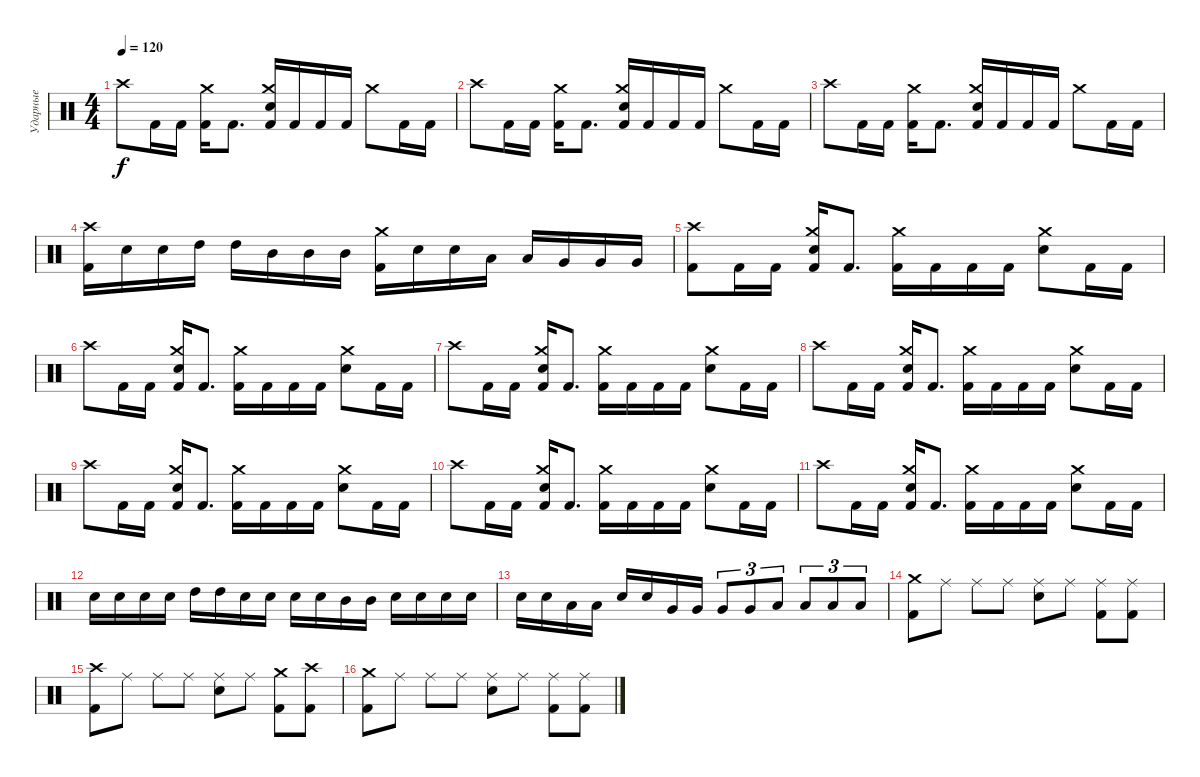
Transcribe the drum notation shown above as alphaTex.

\track ("Ударные" "Ударные") {instrument percussion}
\staff {score}
\articulation defaults
\ts (4 4)
\tempo 120
\clef neutral
\ks c "Crash high (hit)".8{dy f} "Kick (hit) 2".16 "Kick (hit) 2".16
("Crash medium (hit)" "Kick (hit) 2").16 "Kick (hit) 2".8{d} ("Crash medium (hit)" "Electric Snare (hit)" "Kick (hit) 2").16 "Kick (hit) 2".16 "Kick (hit) 2".16 "Kick (hit) 2".16 "Crash medium (hit)".8 "Kick (hit) 2".16 "Kick (hit) 2".16 |
"Crash high (hit)".8 "Kick (hit) 2".16 "Kick (hit) 2".16 ("Crash medium (hit)" "Kick (hit) 2").16 "Kick (hit) 2".8{d} ("Crash medium (hit)" "Electric Snare (hit)" "Kick (hit) 2").16 "Kick (hit) 2".16 "Kick (hit) 2".16 "Kick (hit) 2".16 "Crash medium (hit)".8 "Kick (hit) 2".16 "Kick (hit) 2".16 |
"Crash high (hit)".8 "Kick (hit) 2".16 "Kick (hit) 2".16 ("Crash medium (hit)" "Kick (hit) 2").16 "Kick (hit) 2".8{d} ("Crash medium (hit)" "Electric Snare (hit)" "Kick (hit) 2").16 "Kick (hit) 2".16 "Kick (hit) 2".16 "Kick (hit) 2".16 "Crash medium (hit)".8 "Kick (hit) 2".16 "Kick (hit) 2".16 |
("Crash high (hit)" "Kick (hit) 2").16 "Electric Snare (hit)".16 "Electric Snare (hit)".16 "High Tom (hit)".16 "High Tom (hit)".16 "Mid Tom (hit)".16 "Mid Tom (hit)".16 "Mid Tom (hit)".16 ("Crash medium (hit)" "Kick (hit) 2").16 "Electric Snare (hit)".16 "Electric Snare (hit)".16 "Low Tom (hit)".16 "Low Tom (hit)".16 "Very Low Tom (hit)".16 "Very Low Tom (hit)".16 "Very Low Tom (hit)".16 |
("Crash high (hit)" "Kick (hit) 2").8 "Kick (hit) 2".16 "Kick (hit) 2".16 ("Crash medium (hit)" "Electric Snare (hit)" "Kick (hit) 2").16 "Kick (hit) 2".8{d} ("Crash medium (hit)" "Kick (hit) 2").16 "Kick (hit) 2".16 "Kick (hit) 2".16 "Kick (hit) 2".16 ("Crash medium (hit)" "Electric Snare (hit)").8 "Kick (hit) 2".16 "Kick (hit) 2".16 |
"Crash high (hit)".8 "Kick (hit) 2".16 "Kick (hit) 2".16 ("Crash medium (hit)" "Electric Snare (hit)" "Kick (hit) 2").16 "Kick (hit) 2".8{d} ("Crash medium (hit)" "Kick (hit) 2").16 "Kick (hit) 2".16 "Kick (hit) 2".16 "Kick (hit) 2".16 ("Crash medium (hit)" "Electric Snare (hit)").8 "Kick (hit) 2".16 "Kick (hit) 2".16 |
"Crash high (hit)".8 "Kick (hit) 2".16 "Kick (hit) 2".16 ("Crash medium (hit)" "Electric Snare (hit)" "Kick (hit) 2").16 "Kick (hit) 2".8{d} ("Crash medium (hit)" "Kick (hit) 2").16 "Kick (hit) 2".16 "Kick (hit) 2".16 "Kick (hit) 2".16 ("Crash medium (hit)" "Electric Snare (hit)").8 "Kick (hit) 2".16 "Kick (hit) 2".16 |
"Crash high (hit)".8 "Kick (hit) 2".16 "Kick (hit) 2".16 ("Crash medium (hit)" "Electric Snare (hit)" "Kick (hit) 2").16 "Kick (hit) 2".8{d} ("Crash medium (hit)" "Kick (hit) 2").16 "Kick (hit) 2".16 "Kick (hit) 2".16 "Kick (hit) 2".16 ("Crash medium (hit)" "Electric Snare (hit)").8 "Kick (hit) 2".16 "Kick (hit) 2".16 |
"Crash high (hit)".8 "Kick (hit) 2".16 "Kick (hit) 2".16 ("Crash medium (hit)" "Electric Snare (hit)" "Kick (hit) 2").16 "Kick (hit) 2".8{d} ("Crash medium (hit)" "Kick (hit) 2").16 "Kick (hit) 2".16 "Kick (hit) 2".16 "Kick (hit) 2".16 ("Crash medium (hit)" "Electric Snare (hit)").8 "Kick (hit) 2".16 "Kick (hit) 2".16 |
"Crash high (hit)".8 "Kick (hit) 2".16 "Kick (hit) 2".16 ("Crash medium (hit)" "Electric Snare (hit)" "Kick (hit) 2").16 "Kick (hit) 2".8{d} ("Crash medium (hit)" "Kick (hit) 2").16 "Kick (hit) 2".16 "Kick (hit) 2".16 "Kick (hit) 2".16 ("Crash medium (hit)" "Electric Snare (hit)").8 "Kick (hit) 2".16 "Kick (hit) 2".16 |
"Crash high (hit)".8 "Kick (hit) 2".16 "Kick (hit) 2".16 ("Crash medium (hit)" "Electric Snare (hit)" "Kick (hit) 2").16 "Kick (hit) 2".8{d} ("Crash medium (hit)" "Kick (hit) 2").16 "Kick (hit) 2".16 "Kick (hit) 2".16 "Kick (hit) 2".16 ("Crash medium (hit)" "Electric Snare (hit)").8 "Kick (hit) 2".16 "Kick (hit) 2".16 |
"Electric Snare (hit)".16 "Electric Snare (hit)".16 "Electric Snare (hit)".16 "Electric Snare (hit)".16 "High Tom (hit)".16 "High Tom (hit)".16 "Electric Snare (hit)".16 "Electric Snare (hit)".16 "Electric Snare (hit)".16 "Electric Snare (hit)".16 "Mid Tom (hit)".16 "Mid Tom (hit)".16 "Electric Snare (hit)".16 "Electric Snare (hit)".16 "Electric Snare (hit)".16 "Electric Snare (hit)".16 |
"Electric Snare (hit)".16 "Electric Snare (hit)".16 "Low Tom (hit)".16 "Low Tom (hit)".16 "Electric Snare (hit)".16 "Electric Snare (hit)".16 "Very Low Tom (hit)".16 "Very Low Tom (hit)".16 "Very Low Tom (hit)".8{tu (3 2)} "Very Low Tom (hit)".8{tu (3 2)} "Low Floor Tom (hit)".8{tu (3 2)} "Low Floor Tom (hit)".8{tu (3 2)} "Low Floor Tom (hit)".8{tu (3 2)} "Low Floor Tom (hit)".8{tu (3 2)} |
("Crash medium (hit)" "Kick (hit) 2").8 "Ride (middle)".8 "Ride (middle)".8 "Ride (middle)".8 ("Ride (middle)" "Electric Snare (hit)").8 "Ride (middle)".8 ("Ride (middle)" "Kick (hit) 2").8 ("Ride (middle)" "Kick (hit) 2").8 |
("Crash high (hit)" "Kick (hit) 2").8 "Ride (middle)".8 "Ride (middle)".8 "Ride (middle)".8 ("Ride (middle)" "Electric Snare (hit)").8 "Ride (middle)".8 ("Crash medium (hit)" "Kick (hit) 2").8 ("Crash high (hit)" "Kick (hit) 2").8 |
("Crash medium (hit)" "Kick (hit) 2").8 "Ride (middle)".8 "Ride (middle)".8 "Ride (middle)".8 ("Ride (middle)" "Electric Snare (hit)").8 "Ride (middle)".8 ("Ride (middle)" "Kick (hit) 2").8 ("Ride (middle)" "Kick (hit) 2").8
